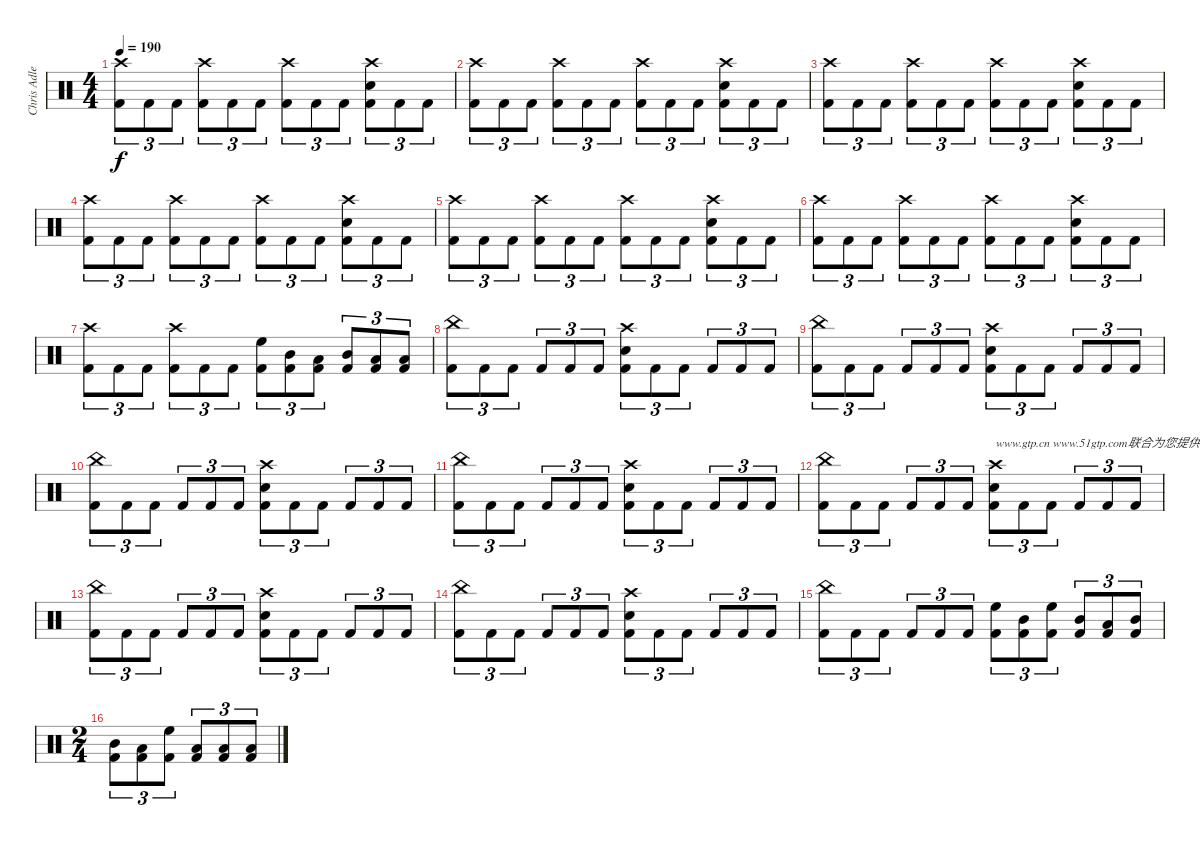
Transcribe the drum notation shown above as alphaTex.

\track ("Chris Adler" "Chris Adle") {instrument percussion}
\staff {score}
\articulation defaults
\ts (4 4)
\tempo 190
\clef neutral
\ks c
("Crash high (hit)" "Kick (hit) 2").8{tu (3 2) dy f} "Kick (hit) 2".8{tu (3 2)} "Kick (hit) 2".8{tu (3 2)} ("Crash high (hit)" "Kick (hit) 2").8{tu (3 2)} "Kick (hit) 2".8{tu (3 2)} "Kick (hit) 2".8{tu (3 2)} ("Crash high (hit)" "Kick (hit) 2").8{tu (3 2)} "Kick (hit) 2".8{tu (3 2)} "Kick (hit) 2".8{tu (3 2)} ("Crash high (hit)" "Electric Snare (hit)" "Kick (hit) 2").8{tu (3 2)} "Kick (hit) 2".8{tu (3 2)} "Kick (hit) 2".8{tu (3 2)} |
("Crash high (hit)" "Kick (hit) 2").8{tu (3 2)} "Kick (hit) 2".8{tu (3 2)} "Kick (hit) 2".8{tu (3 2)} ("Crash high (hit)" "Kick (hit) 2").8{tu (3 2)} "Kick (hit) 2".8{tu (3 2)} "Kick (hit) 2".8{tu (3 2)} ("Crash high (hit)" "Kick (hit) 2").8{tu (3 2)} "Kick (hit) 2".8{tu (3 2)} "Kick (hit) 2".8{tu (3 2)} ("Crash high (hit)" "Electric Snare (hit)" "Kick (hit) 2").8{tu (3 2)} "Kick (hit) 2".8{tu (3 2)} "Kick (hit) 2".8{tu (3 2)} |
("Crash high (hit)" "Kick (hit) 2").8{tu (3 2)} "Kick (hit) 2".8{tu (3 2)} "Kick (hit) 2".8{tu (3 2)} ("Crash high (hit)" "Kick (hit) 2").8{tu (3 2)} "Kick (hit) 2".8{tu (3 2)} "Kick (hit) 2".8{tu (3 2)} ("Crash high (hit)" "Kick (hit) 2").8{tu (3 2)} "Kick (hit) 2".8{tu (3 2)} "Kick (hit) 2".8{tu (3 2)} ("Crash high (hit)" "Electric Snare (hit)" "Kick (hit) 2").8{tu (3 2)} "Kick (hit) 2".8{tu (3 2)} "Kick (hit) 2".8{tu (3 2)} |
("Crash high (hit)" "Kick (hit) 2").8{tu (3 2)} "Kick (hit) 2".8{tu (3 2)} "Kick (hit) 2".8{tu (3 2)} ("Crash high (hit)" "Kick (hit) 2").8{tu (3 2)} "Kick (hit) 2".8{tu (3 2)} "Kick (hit) 2".8{tu (3 2)} ("Crash high (hit)" "Kick (hit) 2").8{tu (3 2)} "Kick (hit) 2".8{tu (3 2)} "Kick (hit) 2".8{tu (3 2)} ("Crash high (hit)" "Electric Snare (hit)" "Kick (hit) 2").8{tu (3 2)} "Kick (hit) 2".8{tu (3 2)} "Kick (hit) 2".8{tu (3 2)} |
("Crash high (hit)" "Kick (hit) 2").8{tu (3 2)} "Kick (hit) 2".8{tu (3 2)} "Kick (hit) 2".8{tu (3 2)} ("Crash high (hit)" "Kick (hit) 2").8{tu (3 2)} "Kick (hit) 2".8{tu (3 2)} "Kick (hit) 2".8{tu (3 2)} ("Crash high (hit)" "Kick (hit) 2").8{tu (3 2)} "Kick (hit) 2".8{tu (3 2)} "Kick (hit) 2".8{tu (3 2)} ("Crash high (hit)" "Electric Snare (hit)" "Kick (hit) 2").8{tu (3 2)} "Kick (hit) 2".8{tu (3 2)} "Kick (hit) 2".8{tu (3 2)} |
("Crash high (hit)" "Kick (hit) 2").8{tu (3 2)} "Kick (hit) 2".8{tu (3 2)} "Kick (hit) 2".8{tu (3 2)} ("Crash high (hit)" "Kick (hit) 2").8{tu (3 2)} "Kick (hit) 2".8{tu (3 2)} "Kick (hit) 2".8{tu (3 2)} ("Crash high (hit)" "Kick (hit) 2").8{tu (3 2)} "Kick (hit) 2".8{tu (3 2)} "Kick (hit) 2".8{tu (3 2)} ("Crash high (hit)" "Electric Snare (hit)" "Kick (hit) 2").8{tu (3 2)} "Kick (hit) 2".8{tu (3 2)} "Kick (hit) 2".8{tu (3 2)} |
("Crash high (hit)" "Kick (hit) 2").8{tu (3 2)} "Kick (hit) 2".8{tu (3 2)} "Kick (hit) 2".8{tu (3 2)} ("Crash high (hit)" "Kick (hit) 2").8{tu (3 2)} "Kick (hit) 2".8{tu (3 2)} "Kick (hit) 2".8{tu (3 2)} ("High Floor Tom (hit)" "Kick (hit) 2").8{tu (3 2)} ("Mid Tom (hit)" "Kick (hit) 2").8{tu (3 2)} ("Low Tom (hit)" "Kick (hit) 2").8{tu (3 2)} ("Mid Tom (hit)" "Kick (hit) 2").8{tu (3 2)} ("Low Tom (hit)" "Kick (hit) 2").8{tu (3 2)} ("Low Floor Tom (hit)" "Kick (hit) 2").8{tu (3 2)} |
("China (hit)" "Kick (hit) 2").8{tu (3 2)} "Kick (hit) 2".8{tu (3 2)} "Kick (hit) 2".8{tu (3 2)} "Kick (hit) 2".8{tu (3 2)} "Kick (hit) 2".8{tu (3 2)} "Kick (hit) 2".8{tu (3 2)} ("Crash high (hit)" "Electric Snare (hit)" "Kick (hit) 2").8{tu (3 2)} "Kick (hit) 2".8{tu (3 2)} "Kick (hit) 2".8{tu (3 2)} "Kick (hit) 2".8{tu (3 2)} "Kick (hit) 2".8{tu (3 2)} "Kick (hit) 2".8{tu (3 2)} |
("China (hit)" "Kick (hit) 2").8{tu (3 2)} "Kick (hit) 2".8{tu (3 2)} "Kick (hit) 2".8{tu (3 2)} "Kick (hit) 2".8{tu (3 2)} "Kick (hit) 2".8{tu (3 2)} "Kick (hit) 2".8{tu (3 2)} ("Crash high (hit)" "Electric Snare (hit)" "Kick (hit) 2").8{tu (3 2)} "Kick (hit) 2".8{tu (3 2)} "Kick (hit) 2".8{tu (3 2)} "Kick (hit) 2".8{tu (3 2)} "Kick (hit) 2".8{tu (3 2)} "Kick (hit) 2".8{tu (3 2)} |
("China (hit)" "Kick (hit) 2").8{tu (3 2)} "Kick (hit) 2".8{tu (3 2)} "Kick (hit) 2".8{tu (3 2)} "Kick (hit) 2".8{tu (3 2)} "Kick (hit) 2".8{tu (3 2)} "Kick (hit) 2".8{tu (3 2)} ("Crash high (hit)" "Electric Snare (hit)" "Kick (hit) 2").8{tu (3 2)} "Kick (hit) 2".8{tu (3 2)} "Kick (hit) 2".8{tu (3 2)} "Kick (hit) 2".8{tu (3 2)} "Kick (hit) 2".8{tu (3 2)} "Kick (hit) 2".8{tu (3 2)} |
("China (hit)" "Kick (hit) 2").8{tu (3 2)} "Kick (hit) 2".8{tu (3 2)} "Kick (hit) 2".8{tu (3 2)} "Kick (hit) 2".8{tu (3 2)} "Kick (hit) 2".8{tu (3 2)} "Kick (hit) 2".8{tu (3 2)} ("Crash high (hit)" "Electric Snare (hit)" "Kick (hit) 2").8{tu (3 2)} "Kick (hit) 2".8{tu (3 2)} "Kick (hit) 2".8{tu (3 2)} "Kick (hit) 2".8{tu (3 2)} "Kick (hit) 2".8{tu (3 2)} "Kick (hit) 2".8{tu (3 2)} |
("China (hit)" "Kick (hit) 2").8{tu (3 2)} "Kick (hit) 2".8{tu (3 2)} "Kick (hit) 2".8{tu (3 2)} "Kick (hit) 2".8{tu (3 2)} "Kick (hit) 2".8{tu (3 2)} "Kick (hit) 2".8{tu (3 2)} ("Crash high (hit)" "Electric Snare (hit)" "Kick (hit) 2").8{tu (3 2) txt "www.gtp.cn www.51gtp.com联合为您提供优秀的GTP!"} "Kick (hit) 2".8{tu (3 2)} "Kick (hit) 2".8{tu (3 2)} "Kick (hit) 2".8{tu (3 2)} "Kick (hit) 2".8{tu (3 2)} "Kick (hit) 2".8{tu (3 2)} |
("China (hit)" "Kick (hit) 2").8{tu (3 2)} "Kick (hit) 2".8{tu (3 2)} "Kick (hit) 2".8{tu (3 2)} "Kick (hit) 2".8{tu (3 2)} "Kick (hit) 2".8{tu (3 2)} "Kick (hit) 2".8{tu (3 2)} ("Crash high (hit)" "Electric Snare (hit)" "Kick (hit) 2").8{tu (3 2)} "Kick (hit) 2".8{tu (3 2)} "Kick (hit) 2".8{tu (3 2)} "Kick (hit) 2".8{tu (3 2)} "Kick (hit) 2".8{tu (3 2)} "Kick (hit) 2".8{tu (3 2)} |
("China (hit)" "Kick (hit) 2").8{tu (3 2)} "Kick (hit) 2".8{tu (3 2)} "Kick (hit) 2".8{tu (3 2)} "Kick (hit) 2".8{tu (3 2)} "Kick (hit) 2".8{tu (3 2)} "Kick (hit) 2".8{tu (3 2)} ("Crash high (hit)" "Electric Snare (hit)" "Kick (hit) 2").8{tu (3 2)} "Kick (hit) 2".8{tu (3 2)} "Kick (hit) 2".8{tu (3 2)} "Kick (hit) 2".8{tu (3 2)} "Kick (hit) 2".8{tu (3 2)} "Kick (hit) 2".8{tu (3 2)} |
("China (hit)" "Kick (hit) 2").8{tu (3 2)} "Kick (hit) 2".8{tu (3 2)} "Kick (hit) 2".8{tu (3 2)} "Kick (hit) 2".8{tu (3 2)} "Kick (hit) 2".8{tu (3 2)} "Kick (hit) 2".8{tu (3 2)} ("High Floor Tom (hit)" "Kick (hit) 2").8{tu (3 2)} ("Mid Tom (hit)" "Kick (hit) 2").8{tu (3 2)} ("High Floor Tom (hit)" "Kick (hit) 2").8{tu (3 2)} ("Mid Tom (hit)" "Kick (hit) 2").8{tu (3 2)} ("Low Tom (hit)" "Kick (hit) 2").8{tu (3 2)} ("Mid Tom (hit)" "Kick (hit) 2").8{tu (3 2)} |
\ts (2 4)
("Mid Tom (hit)" "Kick (hit) 2").8{tu (3 2)} ("Low Tom (hit)" "Kick (hit) 2").8{tu (3 2)} ("High Floor Tom (hit)" "Kick (hit) 2").8{tu (3 2)} ("Low Tom (hit)" "Kick (hit) 2").8{tu (3 2)} ("Low Floor Tom (hit)" "Kick (hit) 2").8{tu (3 2)} ("Low Floor Tom (hit)" "Kick (hit) 2").8{tu (3 2)}
